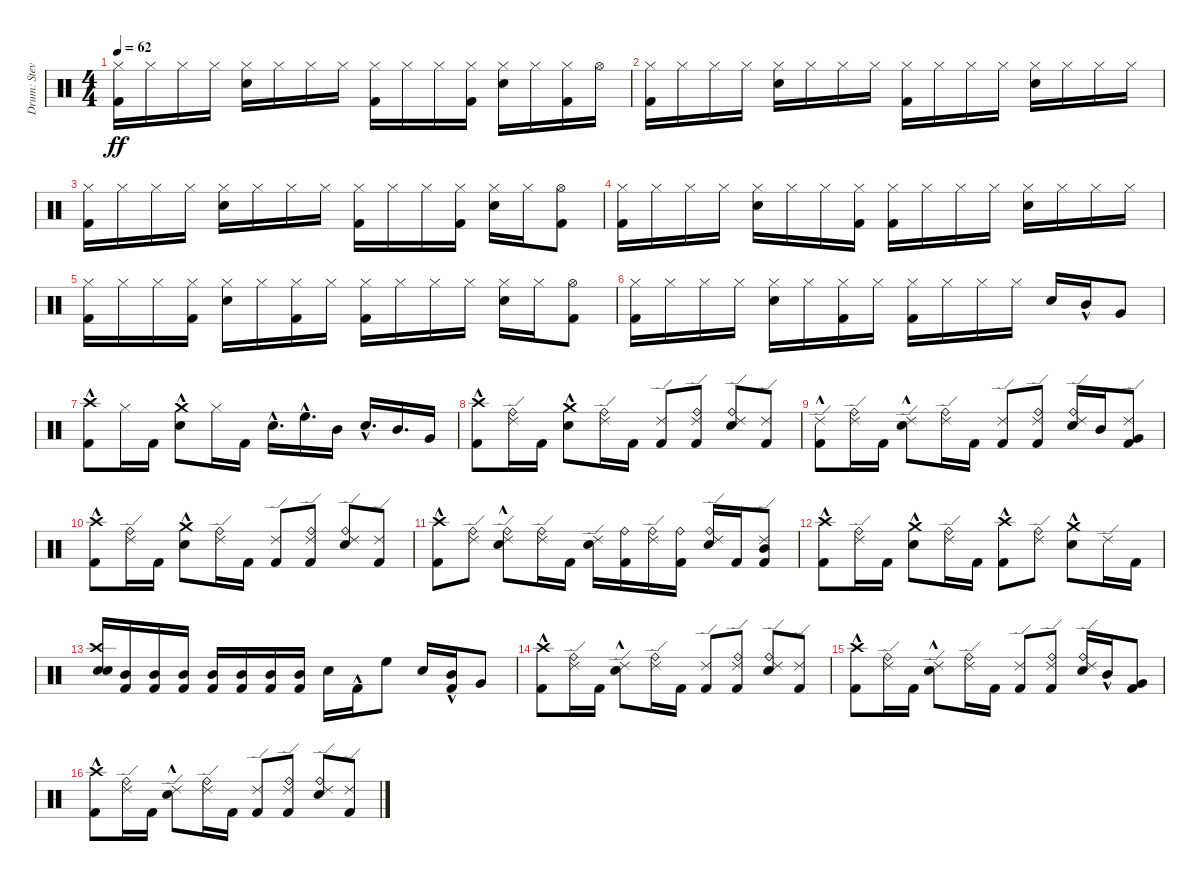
\track ("Drum: Steven Adler" "Drum: Stev") {instrument percussion}
\staff {score}
\articulation defaults
\ts (4 4)
\tempo 62
\clef neutral
\ks c
("Kick (hit) 2" "Hi-Hat (closed)").16{dy ff} "Hi-Hat (closed)".16 "Hi-Hat (closed)".16 "Hi-Hat (closed)".16 ("Snare (hit) 2" "Hi-Hat (closed)").16 "Hi-Hat (closed)".16 "Hi-Hat (closed)".16 "Hi-Hat (closed)".16 ("Kick (hit) 2" "Hi-Hat (closed)").16 "Hi-Hat (closed)".16 "Hi-Hat (closed)".16 ("Kick (hit) 2" "Hi-Hat (closed)").16 ("Snare (hit) 2" "Hi-Hat (closed)").16 "Hi-Hat (closed)".16 ("Kick (hit) 2" "Hi-Hat (closed)").16 "Hi-Hat (open)".16 |
("Kick (hit) 2" "Hi-Hat (closed)").16 "Hi-Hat (closed)".16 "Hi-Hat (closed)".16 "Hi-Hat (closed)".16 ("Snare (hit) 2" "Hi-Hat (closed)").16 "Hi-Hat (closed)".16 "Hi-Hat (closed)".16 "Hi-Hat (closed)".16 ("Kick (hit) 2" "Hi-Hat (closed)").16 "Hi-Hat (closed)".16 "Hi-Hat (closed)".16 "Hi-Hat (closed)".16 ("Snare (hit) 2" "Hi-Hat (closed)").16 "Hi-Hat (closed)".16 "Hi-Hat (closed)".16 "Hi-Hat (closed)".16 |
("Kick (hit) 2" "Hi-Hat (closed)").16 "Hi-Hat (closed)".16 "Hi-Hat (closed)".16 "Hi-Hat (closed)".16 ("Snare (hit) 2" "Hi-Hat (closed)").16 "Hi-Hat (closed)".16 "Hi-Hat (closed)".16 "Hi-Hat (closed)".16 ("Kick (hit) 2" "Hi-Hat (closed)").16 "Hi-Hat (closed)".16 "Hi-Hat (closed)".16 ("Kick (hit) 2" "Hi-Hat (closed)").16 ("Snare (hit) 2" "Hi-Hat (closed)").16 "Hi-Hat (closed)".16 ("Kick (hit) 2" "Hi-Hat (open)").8 |
("Kick (hit) 2" "Hi-Hat (closed)").16 "Hi-Hat (closed)".16 "Hi-Hat (closed)".16 "Hi-Hat (closed)".16 ("Snare (hit) 2" "Hi-Hat (closed)").16 "Hi-Hat (closed)".16 "Hi-Hat (closed)".16 ("Kick (hit) 2" "Hi-Hat (closed)").16 ("Kick (hit) 2" "Hi-Hat (closed)").16 "Hi-Hat (closed)".16 "Hi-Hat (closed)".16 "Hi-Hat (closed)".16 ("Snare (hit) 2" "Hi-Hat (closed)").16 "Hi-Hat (closed)".16 "Hi-Hat (closed)".16 "Hi-Hat (closed)".16 |
("Kick (hit) 2" "Hi-Hat (closed)").16 "Hi-Hat (closed)".16 "Hi-Hat (closed)".16 ("Kick (hit) 2" "Hi-Hat (closed)").16 ("Snare (hit) 2" "Hi-Hat (closed)").16 "Hi-Hat (closed)".16 ("Kick (hit) 2" "Hi-Hat (closed)").16 "Hi-Hat (closed)".16 ("Kick (hit) 2" "Hi-Hat (closed)").16 "Hi-Hat (closed)".16 "Hi-Hat (closed)".16 "Hi-Hat (closed)".16 ("Snare (hit) 2" "Hi-Hat (closed)").16 "Hi-Hat (closed)".16 ("Kick (hit) 2" "Hi-Hat (open)").8 |
("Kick (hit) 2" "Hi-Hat (closed)").16 "Hi-Hat (closed)".16 "Hi-Hat (closed)".16 "Hi-Hat (closed)".16 ("Snare (hit) 2" "Hi-Hat (closed)").16 "Hi-Hat (closed)".16 ("Kick (hit) 2" "Hi-Hat (closed)").16 "Hi-Hat (closed)".16 ("Kick (hit) 2" "Hi-Hat (closed)").16 "Hi-Hat (closed)".16 "Hi-Hat (closed)".16 "Hi-Hat (closed)".16 "Snare (hit) 2".16 "Mid Tom (hit)"{hac}.16 "Very Low Tom (hit)".8 |
("Crash high (hit)"{hac} "Kick (hit) 2").8 "Hi-Hat (closed)".16 "Kick (hit) 2".16 ("Crash medium (hit)"{hac} "Snare (hit) 2").8 "Hi-Hat (closed)".16 "Kick (hit) 2".16 "Snare (hit) 2"{hac}.16{d} "High Floor Tom (hit)"{hac}.16{d} "Mid Tom (hit)".16 "Snare (hit) 2"{hac}.16{d} "Mid Tom (hit)".16{d} "Very Low Tom (hit)".16 |
("Crash high (hit)" "Kick (hit) 2"{hac}).8 ("Ride (bell)" "Ride (edge) 2").16 "Kick (hit) 2".16 ("Crash medium (hit)" "Snare (hit) 2"{hac}).8 ("Ride (bell)" "Ride (edge) 2").16 "Kick (hit) 2".16 ("Ride (edge) 2" "Kick (hit) 2").8 ("Ride (bell)" "Ride (edge) 2" "Kick (hit) 2").8 ("Ride (bell)" "Ride (edge) 2" "Snare (hit) 2").8 ("Ride (edge) 2" "Kick (hit) 2").8 |
("Ride (edge) 2" "Kick (hit) 2"{hac}).8 ("Ride (bell)" "Ride (edge) 2").16 "Kick (hit) 2".16 ("Ride (edge) 2" "Snare (hit) 2"{hac}).8 ("Ride (bell)" "Ride (edge) 2").16 "Kick (hit) 2".16 ("Ride (edge) 2" "Kick (hit) 2").8 ("Ride (bell)" "Ride (edge) 2" "Kick (hit) 2").8 ("Ride (bell)" "Ride (edge) 2" "Snare (hit) 2").16 "Mid Tom (hit)".16 ("Ride (edge) 2" "Kick (hit) 2" "Very Low Tom (hit)").8 |
("Crash high (hit)" "Kick (hit) 2"{hac}).8 ("Ride (bell)" "Ride (edge) 2").16 "Kick (hit) 2".16 ("Crash medium (hit)" "Snare (hit) 2"{hac}).8 ("Ride (bell)" "Ride (edge) 2").16 "Kick (hit) 2".16 ("Ride (edge) 2" "Kick (hit) 2").8 ("Ride (bell)" "Ride (edge) 2" "Kick (hit) 2").8 ("Ride (bell)" "Ride (edge) 2" "Snare (hit) 2").8 ("Ride (edge) 2" "Kick (hit) 2").8 |
("Crash high (hit)" "Kick (hit) 2"{hac}).8 ("Ride (bell)" "Ride (edge) 2").8 ("Ride (bell)" "Ride (edge) 2" "Snare (hit) 2"{hac}).8 ("Ride (bell)" "Ride (edge) 2").16 "Kick (hit) 2".16 ("Ride (edge) 2" "Snare (hit) 2").16 ("Ride (bell)" "Kick (hit) 2").16 ("Ride (bell)" "Ride (edge) 2").16 ("Ride (bell)" "Kick (hit) 2").16 ("Ride (bell)" "Ride (edge) 2" "Snare (hit) 2").16 "Kick (hit) 2".16 ("Mid Tom (hit)" "Ride (edge) 2" "Kick (hit) 2").8 |
("Crash high (hit)" "Kick (hit) 2"{hac}).8 ("Ride (bell)" "Ride (edge) 2").16 "Kick (hit) 2".16 ("Crash medium (hit)" "Snare (hit) 2"{hac}).8 ("Ride (bell)" "Ride (edge) 2").16 "Kick (hit) 2".16 ("Crash high (hit)" "Kick (hit) 2"{hac}).8 ("Ride (bell)" "Ride (edge) 2").8 ("Crash medium (hit)" "Snare (hit) 2"{hac}).8 "Ride (edge) 2".16 "Kick (hit) 2".16 |
("Crash high (hit)" "Snare (hit) 2" "Electric Snare (hit)").16 ("Mid Tom (hit)" "Kick (hit) 2").16 ("Mid Tom (hit)" "Kick (hit) 2").16 ("Mid Tom (hit)" "Kick (hit) 2").16 ("Mid Tom (hit)" "Kick (hit) 2").16 ("Mid Tom (hit)" "Kick (hit) 2").16 ("Mid Tom (hit)" "Kick (hit) 2").16 ("Mid Tom (hit)" "Kick (hit) 2").16 "Snare (hit) 2".16 "Kick (hit) 2"{hac}.16 "High Floor Tom (hit)".8 "Snare (hit) 2".16 ("Mid Tom (hit)"{hac} "Kick (hit) 2").16 "Very Low Tom (hit)".8 |
("Crash high (hit)" "Kick (hit) 2"{hac}).8 ("Ride (bell)" "Ride (edge) 2").16 "Kick (hit) 2".16 ("Ride (edge) 2" "Snare (hit) 2"{hac}).8 ("Ride (bell)" "Ride (edge) 2").16 "Kick (hit) 2".16 ("Ride (edge) 2" "Kick (hit) 2").8 ("Ride (bell)" "Ride (edge) 2" "Kick (hit) 2").8 ("Ride (bell)" "Ride (edge) 2" "Snare (hit) 2").8 ("Ride (edge) 2" "Kick (hit) 2").8 |
("Crash high (hit)" "Kick (hit) 2"{hac}).8 ("Ride (bell)" "Ride (edge) 2").16 "Kick (hit) 2".16 ("Ride (edge) 2" "Snare (hit) 2"{hac}).8 ("Ride (bell)" "Ride (edge) 2").16 "Kick (hit) 2".16 ("Ride (edge) 2" "Kick (hit) 2").8 ("Ride (bell)" "Ride (edge) 2" "Kick (hit) 2").8 ("Ride (bell)" "Ride (edge) 2" "Snare (hit) 2").16 "Mid Tom (hit)"{hac}.16 ("Kick (hit) 2" "Very Low Tom (hit)").8 |
("Crash high (hit)" "Kick (hit) 2"{hac}).8 ("Ride (bell)" "Ride (edge) 2").16 "Kick (hit) 2".16 ("Ride (edge) 2" "Snare (hit) 2"{hac}).8 ("Ride (bell)" "Ride (edge) 2").16 "Kick (hit) 2".16 ("Ride (edge) 2" "Kick (hit) 2").8 ("Ride (bell)" "Ride (edge) 2" "Kick (hit) 2").8 ("Ride (bell)" "Ride (edge) 2" "Snare (hit) 2").8 ("Ride (edge) 2" "Kick (hit) 2").8
